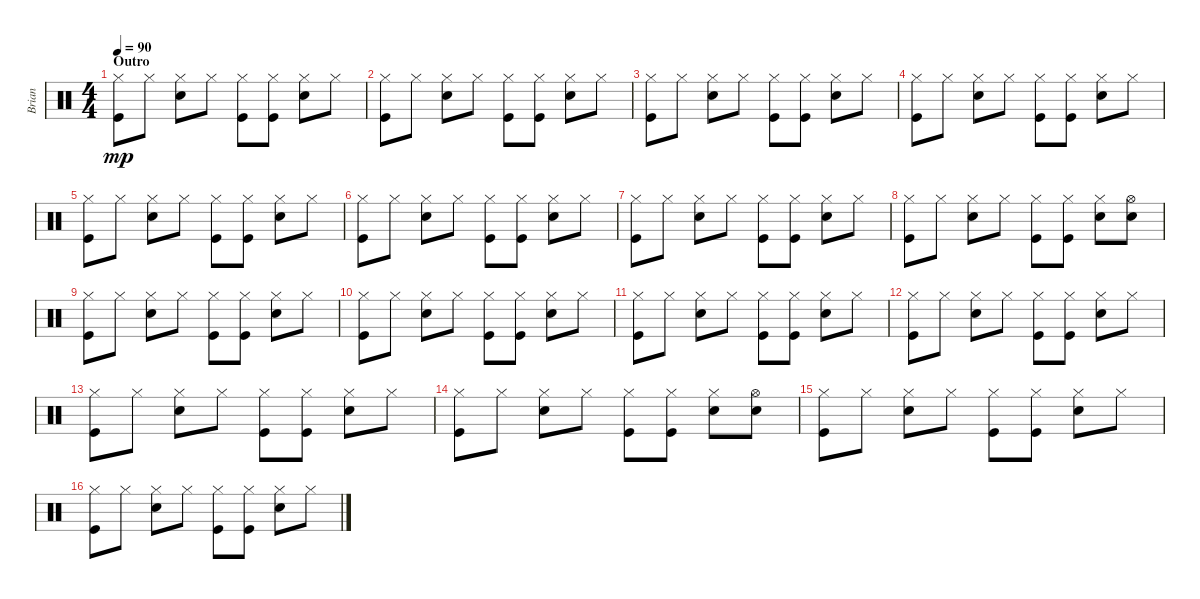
\track ("Brian" "Brian") {instrument percussion}
\staff {score}
\articulation defaults
\ts (4 4)
\section ("" "Outro")
\tempo 90
\clef neutral
\ks c
("Hi-Hat (closed)" "Kick (hit)").8{dy mp} "Hi-Hat (closed)".8 ("Hi-Hat (closed)" "Snare (hit) 2").8 "Hi-Hat (closed)".8 ("Hi-Hat (closed)" "Kick (hit)").8 ("Hi-Hat (closed)" "Kick (hit)").8 ("Hi-Hat (closed)" "Snare (hit) 2").8 "Hi-Hat (closed)".8 |
("Hi-Hat (closed)" "Kick (hit)").8 "Hi-Hat (closed)".8 ("Hi-Hat (closed)" "Snare (hit) 2").8 "Hi-Hat (closed)".8 ("Hi-Hat (closed)" "Kick (hit)").8 ("Hi-Hat (closed)" "Kick (hit)").8 ("Hi-Hat (closed)" "Snare (hit) 2").8 "Hi-Hat (closed)".8 |
("Hi-Hat (closed)" "Kick (hit)").8 "Hi-Hat (closed)".8 ("Hi-Hat (closed)" "Snare (hit) 2").8 "Hi-Hat (closed)".8 ("Hi-Hat (closed)" "Kick (hit)").8 ("Hi-Hat (closed)" "Kick (hit)").8 ("Hi-Hat (closed)" "Snare (hit) 2").8 "Hi-Hat (closed)".8 |
("Hi-Hat (closed)" "Kick (hit)").8 "Hi-Hat (closed)".8 ("Hi-Hat (closed)" "Snare (hit) 2").8 "Hi-Hat (closed)".8 ("Hi-Hat (closed)" "Kick (hit)").8 ("Hi-Hat (closed)" "Kick (hit)").8 ("Hi-Hat (closed)" "Snare (hit) 2").8 "Hi-Hat (closed)".8 |
("Hi-Hat (closed)" "Kick (hit)").8 "Hi-Hat (closed)".8 ("Hi-Hat (closed)" "Snare (hit) 2").8 "Hi-Hat (closed)".8 ("Hi-Hat (closed)" "Kick (hit)").8 ("Hi-Hat (closed)" "Kick (hit)").8 ("Hi-Hat (closed)" "Snare (hit) 2").8 "Hi-Hat (closed)".8 |
("Hi-Hat (closed)" "Kick (hit)").8 "Hi-Hat (closed)".8 ("Hi-Hat (closed)" "Snare (hit) 2").8 "Hi-Hat (closed)".8 ("Hi-Hat (closed)" "Kick (hit)").8 ("Hi-Hat (closed)" "Kick (hit)").8 ("Hi-Hat (closed)" "Snare (hit) 2").8 "Hi-Hat (closed)".8 |
("Hi-Hat (closed)" "Kick (hit)").8 "Hi-Hat (closed)".8 ("Hi-Hat (closed)" "Snare (hit) 2").8 "Hi-Hat (closed)".8 ("Hi-Hat (closed)" "Kick (hit)").8 ("Hi-Hat (closed)" "Kick (hit)").8 ("Hi-Hat (closed)" "Snare (hit) 2").8 "Hi-Hat (closed)".8 |
("Hi-Hat (closed)" "Kick (hit)").8 "Hi-Hat (closed)".8 ("Hi-Hat (closed)" "Snare (hit) 2").8 "Hi-Hat (closed)".8 ("Hi-Hat (closed)" "Kick (hit)").8 ("Hi-Hat (closed)" "Kick (hit)").8 ("Hi-Hat (closed)" "Snare (hit) 2").8 ("Hi-Hat (open)" "Snare (hit) 2").8 |
("Hi-Hat (closed)" "Kick (hit)").8 "Hi-Hat (closed)".8 ("Hi-Hat (closed)" "Snare (hit) 2").8 "Hi-Hat (closed)".8 ("Hi-Hat (closed)" "Kick (hit)").8 ("Hi-Hat (closed)" "Kick (hit)").8 ("Hi-Hat (closed)" "Snare (hit) 2").8 "Hi-Hat (closed)".8 |
("Hi-Hat (closed)" "Kick (hit)").8 "Hi-Hat (closed)".8 ("Hi-Hat (closed)" "Snare (hit) 2").8 "Hi-Hat (closed)".8 ("Hi-Hat (closed)" "Kick (hit)").8 ("Hi-Hat (closed)" "Kick (hit)").8 ("Hi-Hat (closed)" "Snare (hit) 2").8 "Hi-Hat (closed)".8 |
("Hi-Hat (closed)" "Kick (hit)").8 "Hi-Hat (closed)".8 ("Hi-Hat (closed)" "Snare (hit) 2").8 "Hi-Hat (closed)".8 ("Hi-Hat (closed)" "Kick (hit)").8 ("Hi-Hat (closed)" "Kick (hit)").8 ("Hi-Hat (closed)" "Snare (hit) 2").8 "Hi-Hat (closed)".8 |
("Hi-Hat (closed)" "Kick (hit)").8 "Hi-Hat (closed)".8 ("Hi-Hat (closed)" "Snare (hit) 2").8 "Hi-Hat (closed)".8 ("Hi-Hat (closed)" "Kick (hit)").8 ("Hi-Hat (closed)" "Kick (hit)").8 ("Hi-Hat (closed)" "Snare (hit) 2").8 "Hi-Hat (closed)".8 |
("Hi-Hat (closed)" "Kick (hit)").8 "Hi-Hat (closed)".8 ("Hi-Hat (closed)" "Snare (hit) 2").8 "Hi-Hat (closed)".8 ("Hi-Hat (closed)" "Kick (hit)").8 ("Hi-Hat (closed)" "Kick (hit)").8 ("Hi-Hat (closed)" "Snare (hit) 2").8 "Hi-Hat (closed)".8 |
("Hi-Hat (closed)" "Kick (hit)").8 "Hi-Hat (closed)".8 ("Hi-Hat (closed)" "Snare (hit) 2").8 "Hi-Hat (closed)".8 ("Hi-Hat (closed)" "Kick (hit)").8 ("Hi-Hat (closed)" "Kick (hit)").8 ("Hi-Hat (closed)" "Snare (hit) 2").8 ("Hi-Hat (open)" "Hand Clap (hit)").8 |
("Hi-Hat (closed)" "Kick (hit)").8 "Hi-Hat (closed)".8 ("Hi-Hat (closed)" "Snare (hit) 2").8 "Hi-Hat (closed)".8 ("Hi-Hat (closed)" "Kick (hit)").8 ("Hi-Hat (closed)" "Kick (hit)").8 ("Hi-Hat (closed)" "Snare (hit) 2").8 "Hi-Hat (closed)".8 |
("Hi-Hat (closed)" "Kick (hit)").8 "Hi-Hat (closed)".8 ("Hi-Hat (closed)" "Snare (hit) 2").8 "Hi-Hat (closed)".8 ("Hi-Hat (closed)" "Kick (hit)").8 ("Hi-Hat (closed)" "Kick (hit)").8 ("Hi-Hat (closed)" "Snare (hit) 2").8 "Hi-Hat (closed)".8
